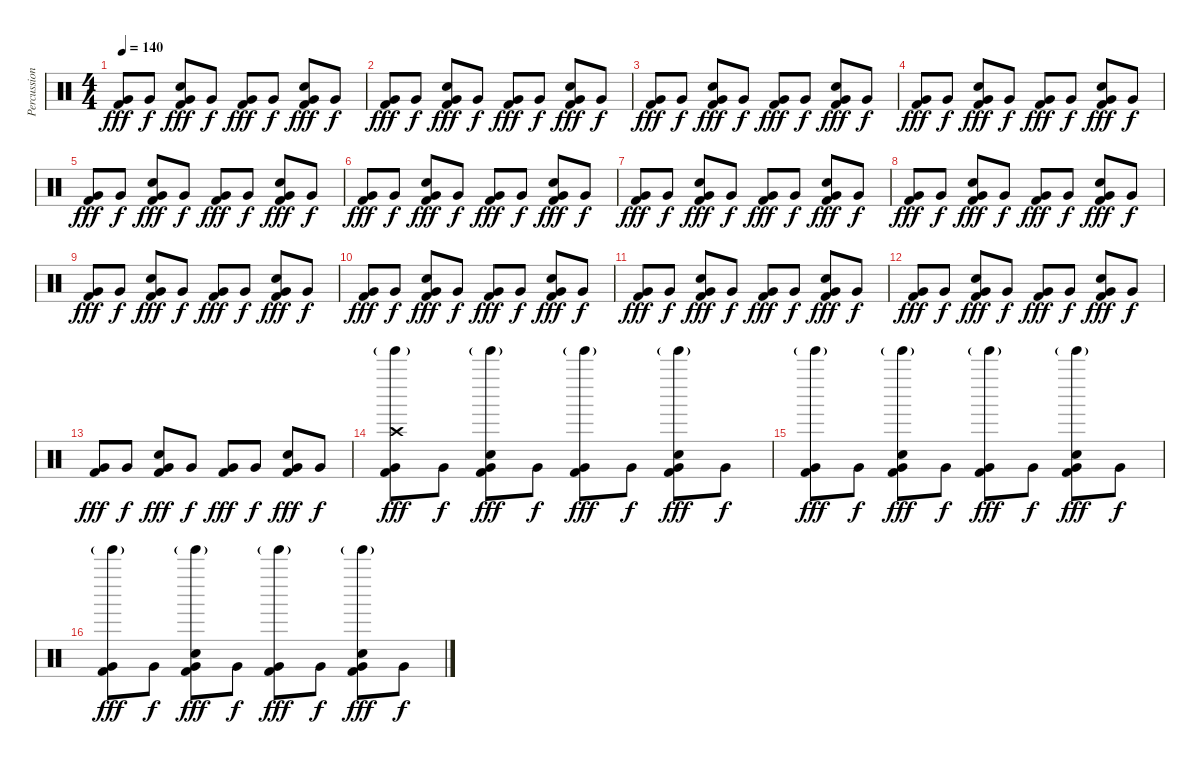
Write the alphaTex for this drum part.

\track ("Percussion" "Percussion") {instrument percussion}
\staff {score}
\articulation defaults
\ts (4 4)
\tempo 140
\clef neutral
\ks c
("Very Low Tom (hit)" "Kick (hit) 2").8{dy fff} "Very Low Tom (hit)".8{dy f} ("Very Low Tom (hit)" "Snare (hit) 2" "Kick (hit) 2").8{dy fff} "Very Low Tom (hit)".8{dy f} ("Very Low Tom (hit)" "Kick (hit) 2").8{dy fff} "Very Low Tom (hit)".8{dy f} ("Very Low Tom (hit)" "Snare (hit) 2" "Kick (hit) 2").8{dy fff} "Very Low Tom (hit)".8{dy f} |
("Very Low Tom (hit)" "Kick (hit) 2").8{dy fff} "Very Low Tom (hit)".8{dy f} ("Very Low Tom (hit)" "Snare (hit) 2" "Kick (hit) 2").8{dy fff} "Very Low Tom (hit)".8{dy f} ("Very Low Tom (hit)" "Kick (hit) 2").8{dy fff} "Very Low Tom (hit)".8{dy f} ("Very Low Tom (hit)" "Snare (hit) 2" "Kick (hit) 2").8{dy fff} "Very Low Tom (hit)".8{dy f} |
("Very Low Tom (hit)" "Kick (hit) 2").8{dy fff} "Very Low Tom (hit)".8{dy f} ("Very Low Tom (hit)" "Snare (hit) 2" "Kick (hit) 2").8{dy fff} "Very Low Tom (hit)".8{dy f} ("Very Low Tom (hit)" "Kick (hit) 2").8{dy fff} "Very Low Tom (hit)".8{dy f} ("Very Low Tom (hit)" "Snare (hit) 2" "Kick (hit) 2").8{dy fff} "Very Low Tom (hit)".8{dy f} |
("Very Low Tom (hit)" "Kick (hit) 2").8{dy fff} "Very Low Tom (hit)".8{dy f} ("Very Low Tom (hit)" "Snare (hit) 2" "Kick (hit) 2").8{dy fff} "Very Low Tom (hit)".8{dy f} ("Very Low Tom (hit)" "Kick (hit) 2").8{dy fff} "Very Low Tom (hit)".8{dy f} ("Very Low Tom (hit)" "Snare (hit) 2" "Kick (hit) 2").8{dy fff} "Very Low Tom (hit)".8{dy f} |
("Very Low Tom (hit)" "Kick (hit) 2").8{dy fff} "Very Low Tom (hit)".8{dy f} ("Very Low Tom (hit)" "Snare (hit) 2" "Kick (hit) 2").8{dy fff} "Very Low Tom (hit)".8{dy f} ("Very Low Tom (hit)" "Kick (hit) 2").8{dy fff} "Very Low Tom (hit)".8{dy f} ("Very Low Tom (hit)" "Snare (hit) 2" "Kick (hit) 2").8{dy fff} "Very Low Tom (hit)".8{dy f} |
("Very Low Tom (hit)" "Kick (hit) 2").8{dy fff} "Very Low Tom (hit)".8{dy f} ("Very Low Tom (hit)" "Snare (hit) 2" "Kick (hit) 2").8{dy fff} "Very Low Tom (hit)".8{dy f} ("Very Low Tom (hit)" "Kick (hit) 2").8{dy fff} "Very Low Tom (hit)".8{dy f} ("Very Low Tom (hit)" "Snare (hit) 2" "Kick (hit) 2").8{dy fff} "Very Low Tom (hit)".8{dy f} |
("Very Low Tom (hit)" "Kick (hit) 2").8{dy fff} "Very Low Tom (hit)".8{dy f} ("Very Low Tom (hit)" "Snare (hit) 2" "Kick (hit) 2").8{dy fff} "Very Low Tom (hit)".8{dy f} ("Very Low Tom (hit)" "Kick (hit) 2").8{dy fff} "Very Low Tom (hit)".8{dy f} ("Very Low Tom (hit)" "Snare (hit) 2" "Kick (hit) 2").8{dy fff} "Very Low Tom (hit)".8{dy f} |
("Very Low Tom (hit)" "Kick (hit) 2").8{dy fff} "Very Low Tom (hit)".8{dy f} ("Very Low Tom (hit)" "Snare (hit) 2" "Kick (hit) 2").8{dy fff} "Very Low Tom (hit)".8{dy f} ("Very Low Tom (hit)" "Kick (hit) 2").8{dy fff} "Very Low Tom (hit)".8{dy f} ("Very Low Tom (hit)" "Snare (hit) 2" "Kick (hit) 2").8{dy fff} "Very Low Tom (hit)".8{dy f} |
("Very Low Tom (hit)" "Kick (hit) 2").8{dy fff} "Very Low Tom (hit)".8{dy f} ("Very Low Tom (hit)" "Snare (hit) 2" "Kick (hit) 2").8{dy fff} "Very Low Tom (hit)".8{dy f} ("Very Low Tom (hit)" "Kick (hit) 2").8{dy fff} "Very Low Tom (hit)".8{dy f} ("Very Low Tom (hit)" "Snare (hit) 2" "Kick (hit) 2").8{dy fff} "Very Low Tom (hit)".8{dy f} |
("Very Low Tom (hit)" "Kick (hit) 2").8{dy fff} "Very Low Tom (hit)".8{dy f} ("Very Low Tom (hit)" "Snare (hit) 2" "Kick (hit) 2").8{dy fff} "Very Low Tom (hit)".8{dy f} ("Very Low Tom (hit)" "Kick (hit) 2").8{dy fff} "Very Low Tom (hit)".8{dy f} ("Very Low Tom (hit)" "Snare (hit) 2" "Kick (hit) 2").8{dy fff} "Very Low Tom (hit)".8{dy f} |
("Very Low Tom (hit)" "Kick (hit) 2").8{dy fff} "Very Low Tom (hit)".8{dy f} ("Very Low Tom (hit)" "Snare (hit) 2" "Kick (hit) 2").8{dy fff} "Very Low Tom (hit)".8{dy f} ("Very Low Tom (hit)" "Kick (hit) 2").8{dy fff} "Very Low Tom (hit)".8{dy f} ("Very Low Tom (hit)" "Snare (hit) 2" "Kick (hit) 2").8{dy fff} "Very Low Tom (hit)".8{dy f} |
("Very Low Tom (hit)" "Kick (hit) 2").8{dy fff} "Very Low Tom (hit)".8{dy f} ("Very Low Tom (hit)" "Snare (hit) 2" "Kick (hit) 2").8{dy fff} "Very Low Tom (hit)".8{dy f} ("Very Low Tom (hit)" "Kick (hit) 2").8{dy fff} "Very Low Tom (hit)".8{dy f} ("Very Low Tom (hit)" "Snare (hit) 2" "Kick (hit) 2").8{dy fff} "Very Low Tom (hit)".8{dy f} |
("Very Low Tom (hit)" "Kick (hit) 2").8{dy fff} "Very Low Tom (hit)".8{dy f} ("Very Low Tom (hit)" "Snare (hit) 2" "Kick (hit) 2").8{dy fff} "Very Low Tom (hit)".8{dy f} ("Very Low Tom (hit)" "Kick (hit) 2").8{dy fff} "Very Low Tom (hit)".8{dy f} ("Very Low Tom (hit)" "Snare (hit) 2" "Kick (hit) 2").8{dy fff} "Very Low Tom (hit)".8{dy f} |
("Crash high (hit)" "Tinkle Bell (hit)"{g} "Very Low Tom (hit)" "Kick (hit) 2").8{dy fff} "Very Low Tom (hit)".8{dy f} ("Tinkle Bell (hit)"{g} "Very Low Tom (hit)" "Snare (hit) 2" "Kick (hit) 2").8{dy fff} "Very Low Tom (hit)".8{dy f} ("Tinkle Bell (hit)"{g} "Very Low Tom (hit)" "Kick (hit) 2").8{dy fff} "Very Low Tom (hit)".8{dy f} ("Tinkle Bell (hit)"{g} "Very Low Tom (hit)" "Snare (hit) 2" "Kick (hit) 2").8{dy fff} "Very Low Tom (hit)".8{dy f} |
("Tinkle Bell (hit)"{g} "Very Low Tom (hit)" "Kick (hit) 2").8{dy fff} "Very Low Tom (hit)".8{dy f} ("Tinkle Bell (hit)"{g} "Very Low Tom (hit)" "Snare (hit) 2" "Kick (hit) 2").8{dy fff} "Very Low Tom (hit)".8{dy f} ("Tinkle Bell (hit)"{g} "Very Low Tom (hit)" "Kick (hit) 2").8{dy fff} "Very Low Tom (hit)".8{dy f} ("Tinkle Bell (hit)"{g} "Very Low Tom (hit)" "Snare (hit) 2" "Kick (hit) 2").8{dy fff} "Very Low Tom (hit)".8{dy f} |
("Tinkle Bell (hit)"{g} "Very Low Tom (hit)" "Kick (hit) 2").8{dy fff} "Very Low Tom (hit)".8{dy f} ("Tinkle Bell (hit)"{g} "Very Low Tom (hit)" "Snare (hit) 2" "Kick (hit) 2").8{dy fff} "Very Low Tom (hit)".8{dy f} ("Tinkle Bell (hit)"{g} "Very Low Tom (hit)" "Kick (hit) 2").8{dy fff} "Very Low Tom (hit)".8{dy f} ("Tinkle Bell (hit)"{g} "Very Low Tom (hit)" "Snare (hit) 2" "Kick (hit) 2").8{dy fff} "Very Low Tom (hit)".8{dy f}
